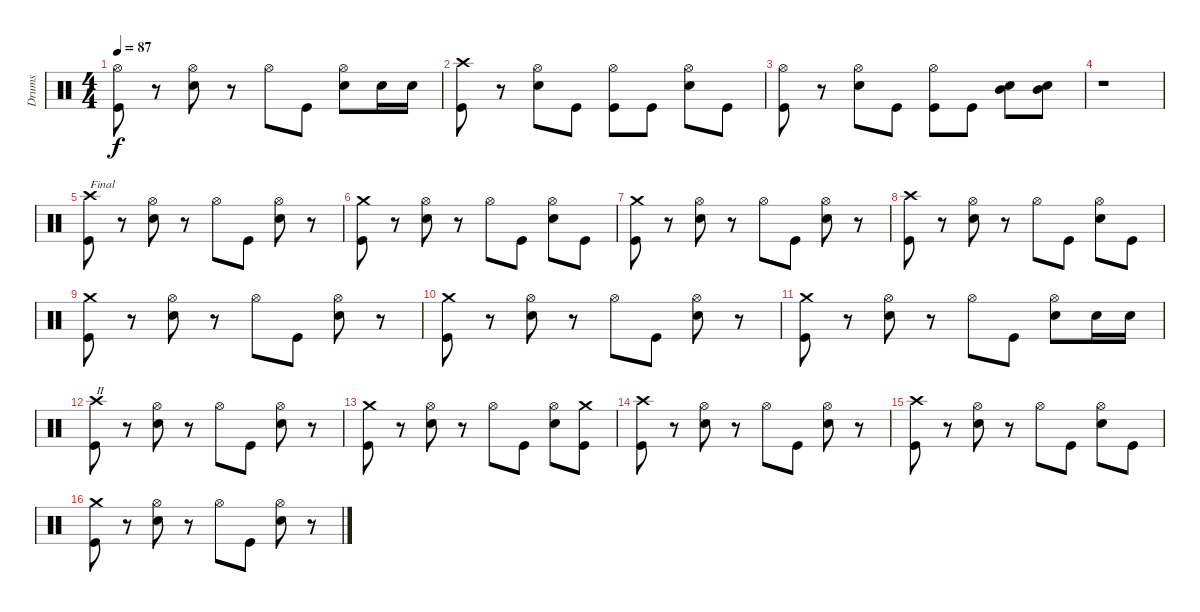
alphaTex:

\track ("Drums" "Drums") {instrument percussion}
\staff {score}
\articulation defaults
\ts (4 4)
\tempo 87
\clef neutral
\ks c
("Hi-Hat (open)" "Kick (hit)").8{dy f} r.8 ("Hi-Hat (open)" "Electric Snare (hit)").8 r.8 "Hi-Hat (open)".8 "Kick (hit)".8 ("Hi-Hat (open)" "Electric Snare (hit)").8 "Electric Snare (hit)".16 "Electric Snare (hit)".16 |
("Crash high (hit)" "Kick (hit)").8 r.8 ("Hi-Hat (open)" "Electric Snare (hit)").8 "Kick (hit)".8 ("Hi-Hat (open)" "Kick (hit)").8 "Kick (hit)".8 ("Hi-Hat (open)" "Electric Snare (hit)").8 "Kick (hit)".8 |
("Hi-Hat (open)" "Kick (hit)").8 r.8 ("Hi-Hat (open)" "Electric Snare (hit)").8 "Kick (hit)".8 ("Hi-Hat (open)" "Kick (hit)").8 "Kick (hit)".8 ("Mid Tom (hit)" "Electric Snare (hit)").8 ("Mid Tom (hit)" "Electric Snare (hit)").8 |
r.1 |
("Crash high (hit)" "Kick (hit)").8{txt "Final"} r.8 ("Hi-Hat (open)" "Electric Snare (hit)").8 r.8 "Hi-Hat (open)".8 "Kick (hit)".8 ("Hi-Hat (open)" "Electric Snare (hit)").8 r.8 |
("Crash medium (hit)" "Kick (hit)").8 r.8 ("Hi-Hat (open)" "Electric Snare (hit)").8 r.8 "Hi-Hat (open)".8 "Kick (hit)".8 ("Hi-Hat (open)" "Electric Snare (hit)").8 "Kick (hit)".8 |
("Crash medium (hit)" "Kick (hit)").8 r.8 ("Hi-Hat (open)" "Electric Snare (hit)").8 r.8 "Hi-Hat (open)".8 "Kick (hit)".8 ("Hi-Hat (open)" "Electric Snare (hit)").8 r.8 |
("Crash high (hit)" "Kick (hit)").8 r.8 ("Hi-Hat (open)" "Electric Snare (hit)").8 r.8 "Hi-Hat (open)".8 "Kick (hit)".8 ("Hi-Hat (open)" "Electric Snare (hit)").8 "Kick (hit)".8 |
("Crash medium (hit)" "Kick (hit)").8 r.8 ("Hi-Hat (open)" "Electric Snare (hit)").8 r.8 "Hi-Hat (open)".8 "Kick (hit)".8 ("Hi-Hat (open)" "Electric Snare (hit)").8 r.8 |
("Crash medium (hit)" "Kick (hit)").8 r.8 ("Hi-Hat (open)" "Electric Snare (hit)").8 r.8 "Hi-Hat (open)".8 "Kick (hit)".8 ("Hi-Hat (open)" "Electric Snare (hit)").8 r.8 |
("Crash medium (hit)" "Kick (hit)").8 r.8 ("Hi-Hat (open)" "Electric Snare (hit)").8 r.8 "Hi-Hat (open)".8 "Kick (hit)".8 ("Hi-Hat (open)" "Electric Snare (hit)").8 "Electric Snare (hit)".16 "Electric Snare (hit)".16 |
("Crash high (hit)" "Kick (hit)").8{txt "II"} r.8 ("Hi-Hat (open)" "Electric Snare (hit)").8 r.8 "Hi-Hat (open)".8 "Kick (hit)".8 ("Hi-Hat (open)" "Electric Snare (hit)").8 r.8 |
("Crash medium (hit)" "Kick (hit)").8 r.8 ("Hi-Hat (open)" "Electric Snare (hit)").8 r.8 "Hi-Hat (open)".8 "Kick (hit)".8 ("Hi-Hat (open)" "Electric Snare (hit)").8 ("Crash medium (hit)" "Kick (hit)").8 |
("Crash high (hit)" "Kick (hit)").8 r.8 ("Hi-Hat (open)" "Electric Snare (hit)").8 r.8 "Hi-Hat (open)".8 "Kick (hit)".8 ("Hi-Hat (open)" "Electric Snare (hit)").8 r.8 |
("Crash high (hit)" "Kick (hit)").8 r.8 ("Hi-Hat (open)" "Electric Snare (hit)").8 r.8 "Hi-Hat (open)".8 "Kick (hit)".8 ("Hi-Hat (open)" "Electric Snare (hit)").8 "Kick (hit)".8 |
("Crash medium (hit)" "Kick (hit)").8 r.8 ("Hi-Hat (open)" "Electric Snare (hit)").8 r.8 "Hi-Hat (open)".8 "Kick (hit)".8 ("Hi-Hat (open)" "Electric Snare (hit)").8 r.8
